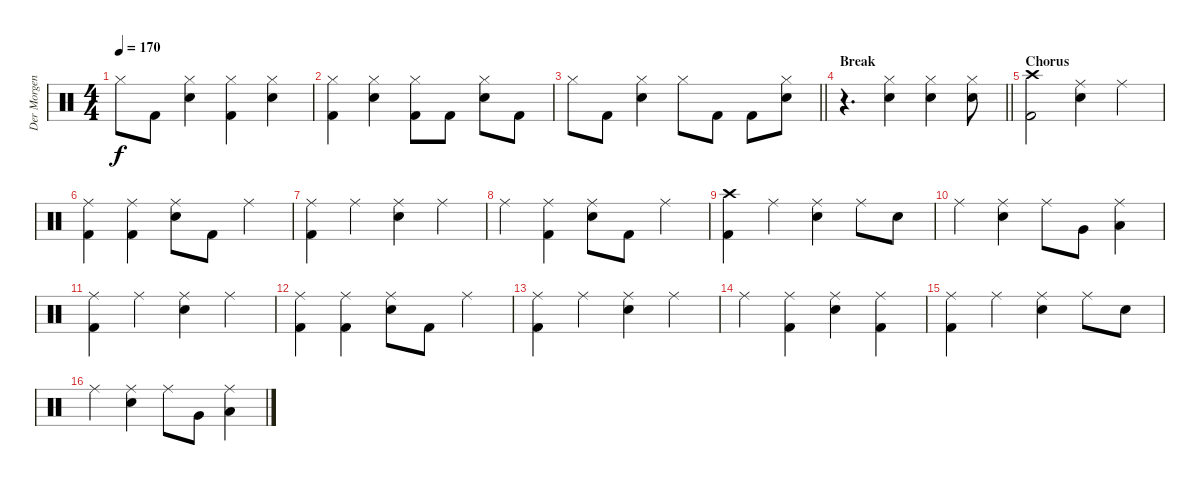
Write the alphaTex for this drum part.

\track ("Der Morgenstern" "Der Morgen") {instrument percussion}
\staff {score}
\articulation defaults
\ts (4 4)
\tempo 170
\clef neutral
\ks c "Hi-Hat (closed)".8{dy f} "Kick (hit) 2".8
("Hi-Hat (closed)" "Electric Snare (hit)").4 ("Hi-Hat (closed)" "Kick (hit) 2").4 ("Hi-Hat (closed)" "Electric Snare (hit)").4 |
("Hi-Hat (closed)" "Kick (hit) 2").4 ("Hi-Hat (closed)" "Electric Snare (hit)").4 ("Hi-Hat (closed)" "Kick (hit) 2").8 "Kick (hit) 2".8 ("Hi-Hat (closed)" "Electric Snare (hit)").8 "Kick (hit) 2".8 |
\barLineRight lightlight "Hi-Hat (closed)".8 "Kick (hit) 2".8
("Hi-Hat (closed)" "Electric Snare (hit)").4 "Hi-Hat (closed)".8 "Kick (hit) 2".8 "Kick (hit) 2".8 ("Hi-Hat (closed)" "Electric Snare (hit)").8 |
\section ("" "Break")
\barLineRight lightlight
r.4{d} ("Hi-Hat (closed)" "Electric Snare (hit)").4 ("Hi-Hat (closed)" "Electric Snare (hit)").4 ("Hi-Hat (closed)" "Electric Snare (hit)").8 |
\section ("" "Chorus")
("Crash high (hit)" "Kick (hit) 2").2 ("Ride (middle)" "Electric Snare (hit)").4 "Ride (middle)".4 |
("Ride (middle)" "Kick (hit) 2").4 ("Ride (middle)" "Kick (hit) 2").4 ("Ride (middle)" "Electric Snare (hit)").8 "Kick (hit) 2".8 "Ride (middle)".4 |
("Ride (middle)" "Kick (hit) 2").4 "Ride (middle)".4 ("Ride (middle)" "Electric Snare (hit)").4 "Ride (middle)".4 |
"Ride (middle)".4 ("Ride (middle)" "Kick (hit) 2").4 ("Ride (middle)" "Electric Snare (hit)").8 "Kick (hit) 2".8 "Ride (middle)".4 |
("Crash high (hit)" "Kick (hit) 2").4 "Ride (middle)".4 ("Ride (middle)" "Electric Snare (hit)").4 "Ride (middle)".8 "Electric Snare (hit)".8 |
"Ride (middle)".4 ("Ride (middle)" "Electric Snare (hit)").4 "Ride (middle)".8 "Very Low Tom (hit)".8 ("Ride (middle)" "Low Floor Tom (hit)").4 |
("Ride (middle)" "Kick (hit) 2").4 "Ride (middle)".4 ("Ride (middle)" "Electric Snare (hit)").4 "Ride (middle)".4 |
("Ride (middle)" "Kick (hit) 2").4 ("Ride (middle)" "Kick (hit) 2").4 ("Ride (middle)" "Electric Snare (hit)").8 "Kick (hit) 2".8 "Ride (middle)".4 |
("Ride (middle)" "Kick (hit) 2").4 "Ride (middle)".4 ("Ride (middle)" "Electric Snare (hit)").4 "Ride (middle)".4 |
"Ride (middle)".4 ("Ride (middle)" "Kick (hit) 2").4 ("Ride (middle)" "Electric Snare (hit)").4 ("Ride (middle)" "Kick (hit) 2").4 |
("Ride (middle)" "Kick (hit) 2").4 "Ride (middle)".4 ("Ride (middle)" "Electric Snare (hit)").4 "Ride (middle)".8 "Electric Snare (hit)".8 |
"Ride (middle)".4 ("Ride (middle)" "Electric Snare (hit)").4 "Ride (middle)".8 "Very Low Tom (hit)".8 ("Ride (middle)" "Low Floor Tom (hit)").4
